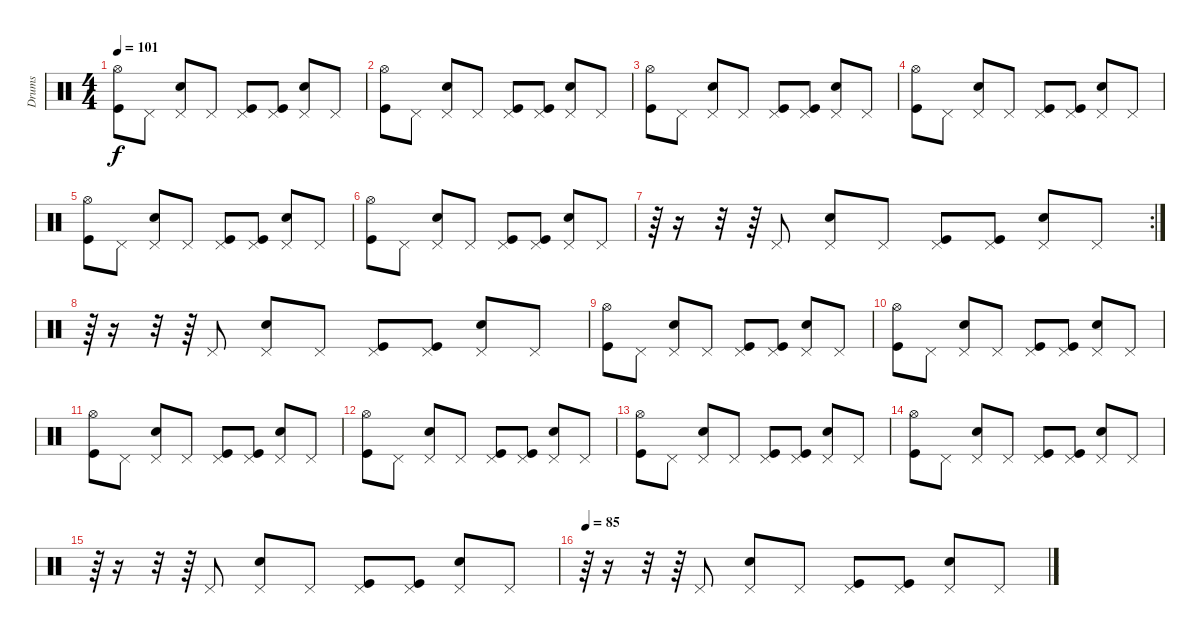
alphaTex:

\track ("Drums" "Drums") {instrument percussion}
\staff {score}
\articulation defaults
\ts (4 4)
\tempo 101
\clef neutral
\ks c
("Kick (hit)" "Hi-Hat (open)").8{dy f} "Pedal Hi-Hat (hit)".8 ("Electric Snare (hit)" "Pedal Hi-Hat (hit)").8 "Pedal Hi-Hat (hit)".8 ("Kick (hit)" "Pedal Hi-Hat (hit)").8 ("Kick (hit)" "Pedal Hi-Hat (hit)").8 ("Electric Snare (hit)" "Pedal Hi-Hat (hit)").8 "Pedal Hi-Hat (hit)".8 |
("Kick (hit)" "Hi-Hat (open)").8 "Pedal Hi-Hat (hit)".8 ("Electric Snare (hit)" "Pedal Hi-Hat (hit)").8 "Pedal Hi-Hat (hit)".8 ("Kick (hit)" "Pedal Hi-Hat (hit)").8 ("Kick (hit)" "Pedal Hi-Hat (hit)").8 ("Electric Snare (hit)" "Pedal Hi-Hat (hit)").8 "Pedal Hi-Hat (hit)".8 |
("Kick (hit)" "Hi-Hat (open)").8 "Pedal Hi-Hat (hit)".8 ("Electric Snare (hit)" "Pedal Hi-Hat (hit)").8 "Pedal Hi-Hat (hit)".8 ("Kick (hit)" "Pedal Hi-Hat (hit)").8 ("Kick (hit)" "Pedal Hi-Hat (hit)").8 ("Electric Snare (hit)" "Pedal Hi-Hat (hit)").8 "Pedal Hi-Hat (hit)".8 |
("Kick (hit)" "Hi-Hat (open)").8 "Pedal Hi-Hat (hit)".8 ("Electric Snare (hit)" "Pedal Hi-Hat (hit)").8 "Pedal Hi-Hat (hit)".8 ("Kick (hit)" "Pedal Hi-Hat (hit)").8 ("Kick (hit)" "Pedal Hi-Hat (hit)").8 ("Electric Snare (hit)" "Pedal Hi-Hat (hit)").8 "Pedal Hi-Hat (hit)".8 |
("Kick (hit)" "Hi-Hat (open)").8 "Pedal Hi-Hat (hit)".8 ("Electric Snare (hit)" "Pedal Hi-Hat (hit)").8 "Pedal Hi-Hat (hit)".8 ("Kick (hit)" "Pedal Hi-Hat (hit)").8 ("Kick (hit)" "Pedal Hi-Hat (hit)").8 ("Electric Snare (hit)" "Pedal Hi-Hat (hit)").8 "Pedal Hi-Hat (hit)".8 |
("Kick (hit)" "Hi-Hat (open)").8 "Pedal Hi-Hat (hit)".8 ("Electric Snare (hit)" "Pedal Hi-Hat (hit)").8 "Pedal Hi-Hat (hit)".8 ("Kick (hit)" "Pedal Hi-Hat (hit)").8 ("Kick (hit)" "Pedal Hi-Hat (hit)").8 ("Electric Snare (hit)" "Pedal Hi-Hat (hit)").8 "Pedal Hi-Hat (hit)".8 |
\rc 2
r.64 r.16 r.32 r.64 "Pedal Hi-Hat (hit)".8 ("Electric Snare (hit)" "Pedal Hi-Hat (hit)").8 "Pedal Hi-Hat (hit)".8 ("Kick (hit)" "Pedal Hi-Hat (hit)").8 ("Kick (hit)" "Pedal Hi-Hat (hit)").8 ("Electric Snare (hit)" "Pedal Hi-Hat (hit)").8 "Pedal Hi-Hat (hit)".8 |
r.64 r.16 r.32 r.64 "Pedal Hi-Hat (hit)".8 ("Electric Snare (hit)" "Pedal Hi-Hat (hit)").8 "Pedal Hi-Hat (hit)".8 ("Kick (hit)" "Pedal Hi-Hat (hit)").8 ("Kick (hit)" "Pedal Hi-Hat (hit)").8 ("Electric Snare (hit)" "Pedal Hi-Hat (hit)").8 "Pedal Hi-Hat (hit)".8 |
("Kick (hit)" "Hi-Hat (open)").8 "Pedal Hi-Hat (hit)".8 ("Electric Snare (hit)" "Pedal Hi-Hat (hit)").8 "Pedal Hi-Hat (hit)".8 ("Kick (hit)" "Pedal Hi-Hat (hit)").8 ("Kick (hit)" "Pedal Hi-Hat (hit)").8 ("Electric Snare (hit)" "Pedal Hi-Hat (hit)").8 "Pedal Hi-Hat (hit)".8 |
("Kick (hit)" "Hi-Hat (open)").8 "Pedal Hi-Hat (hit)".8 ("Electric Snare (hit)" "Pedal Hi-Hat (hit)").8 "Pedal Hi-Hat (hit)".8 ("Kick (hit)" "Pedal Hi-Hat (hit)").8 ("Kick (hit)" "Pedal Hi-Hat (hit)").8 ("Electric Snare (hit)" "Pedal Hi-Hat (hit)").8 "Pedal Hi-Hat (hit)".8 |
("Kick (hit)" "Hi-Hat (open)").8 "Pedal Hi-Hat (hit)".8 ("Electric Snare (hit)" "Pedal Hi-Hat (hit)").8 "Pedal Hi-Hat (hit)".8 ("Kick (hit)" "Pedal Hi-Hat (hit)").8 ("Kick (hit)" "Pedal Hi-Hat (hit)").8 ("Electric Snare (hit)" "Pedal Hi-Hat (hit)").8 "Pedal Hi-Hat (hit)".8 |
("Kick (hit)" "Hi-Hat (open)").8 "Pedal Hi-Hat (hit)".8 ("Electric Snare (hit)" "Pedal Hi-Hat (hit)").8 "Pedal Hi-Hat (hit)".8 ("Kick (hit)" "Pedal Hi-Hat (hit)").8 ("Kick (hit)" "Pedal Hi-Hat (hit)").8 ("Electric Snare (hit)" "Pedal Hi-Hat (hit)").8 "Pedal Hi-Hat (hit)".8 |
("Kick (hit)" "Hi-Hat (open)").8 "Pedal Hi-Hat (hit)".8 ("Electric Snare (hit)" "Pedal Hi-Hat (hit)").8 "Pedal Hi-Hat (hit)".8 ("Kick (hit)" "Pedal Hi-Hat (hit)").8 ("Kick (hit)" "Pedal Hi-Hat (hit)").8 ("Electric Snare (hit)" "Pedal Hi-Hat (hit)").8 "Pedal Hi-Hat (hit)".8 |
("Kick (hit)" "Hi-Hat (open)").8 "Pedal Hi-Hat (hit)".8 ("Electric Snare (hit)" "Pedal Hi-Hat (hit)").8 "Pedal Hi-Hat (hit)".8 ("Kick (hit)" "Pedal Hi-Hat (hit)").8 ("Kick (hit)" "Pedal Hi-Hat (hit)").8 ("Electric Snare (hit)" "Pedal Hi-Hat (hit)").8 "Pedal Hi-Hat (hit)".8 |
r.64 r.16 r.32 r.64 "Pedal Hi-Hat (hit)".8 ("Electric Snare (hit)" "Pedal Hi-Hat (hit)").8 "Pedal Hi-Hat (hit)".8 ("Kick (hit)" "Pedal Hi-Hat (hit)").8 ("Kick (hit)" "Pedal Hi-Hat (hit)").8 ("Electric Snare (hit)" "Pedal Hi-Hat (hit)").8 "Pedal Hi-Hat (hit)".8 |
\tempo 85
r.64 r.16 r.32 r.64 "Pedal Hi-Hat (hit)".8 ("Electric Snare (hit)" "Pedal Hi-Hat (hit)").8 "Pedal Hi-Hat (hit)".8 ("Kick (hit)" "Pedal Hi-Hat (hit)").8 ("Kick (hit)" "Pedal Hi-Hat (hit)").8 ("Electric Snare (hit)" "Pedal Hi-Hat (hit)").8 "Pedal Hi-Hat (hit)".8
